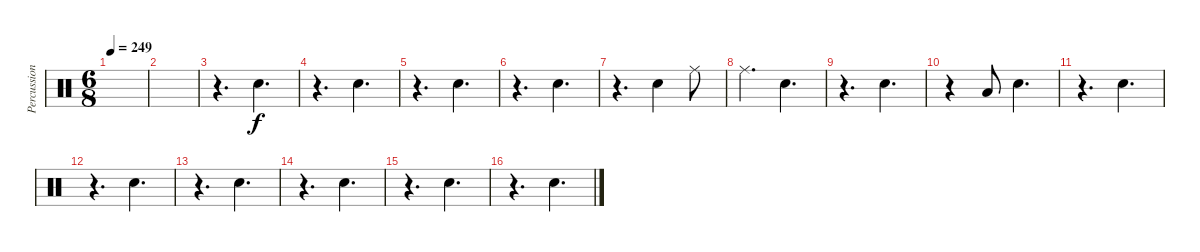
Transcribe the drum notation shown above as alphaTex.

\track ("Percussion" "Percussion") {instrument percussion}
\staff {score}
\articulation defaults
\ts (6 8)
\tempo 249
\clef neutral
\ks c
|
|
r.4{d} "Snare (hit) 2".4{d} |
r.4{d} "Snare (hit) 2".4{d} |
r.4{d} "Snare (hit) 2".4{d} |
r.4{d} "Snare (hit) 2".4{d} |
r.4{d} "Snare (hit) 2".4 "Ride (middle)".8 |
"Ride (middle)".4{d} "Snare (hit) 2".4{d} |
r.4{d} "Snare (hit) 2".4{d} |
r.4 "Low Tom (hit)".8 "Snare (hit) 2".4{d} |
r.4{d} "Snare (hit) 2".4{d} |
r.4{d} "Snare (hit) 2".4{d} |
r.4{d} "Snare (hit) 2".4{d} |
r.4{d} "Snare (hit) 2".4{d} |
r.4{d} "Snare (hit) 2".4{d} |
r.4{d} "Snare (hit) 2".4{d}
